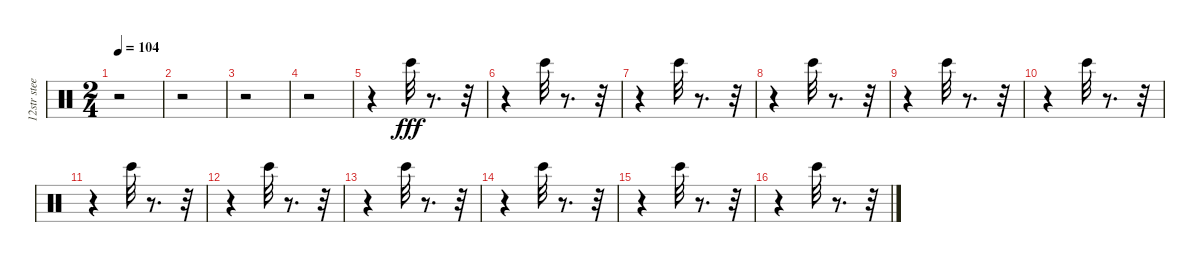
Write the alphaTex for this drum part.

\track ("12str steel mute " "12str stee") {instrument percussion}
\staff {score}
\articulation defaults
\ts (2 4)
\tempo 104
\clef neutral
\ks c
r.2{dy fff} |
r.2 |
r.2 |
r.2 |
r.4 "Bongo High (hit)".32 r.8{d} r.32 |
r.4 "Bongo High (hit)".32 r.8{d} r.32 |
r.4 "Bongo High (hit)".32 r.8{d} r.32 |
r.4 "Bongo High (hit)".32 r.8{d} r.32 |
r.4 "Bongo High (hit)".32 r.8{d} r.32 |
r.4 "Bongo High (hit)".32 r.8{d} r.32 |
r.4 "Bongo High (hit)".32 r.8{d} r.32 |
r.4 "Bongo High (hit)".32 r.8{d} r.32 |
r.4 "Bongo High (hit)".32 r.8{d} r.32 |
r.4 "Bongo High (hit)".32 r.8{d} r.32 |
r.4 "Bongo High (hit)".32 r.8{d} r.32 |
r.4 "Bongo High (hit)".32 r.8{d} r.32
